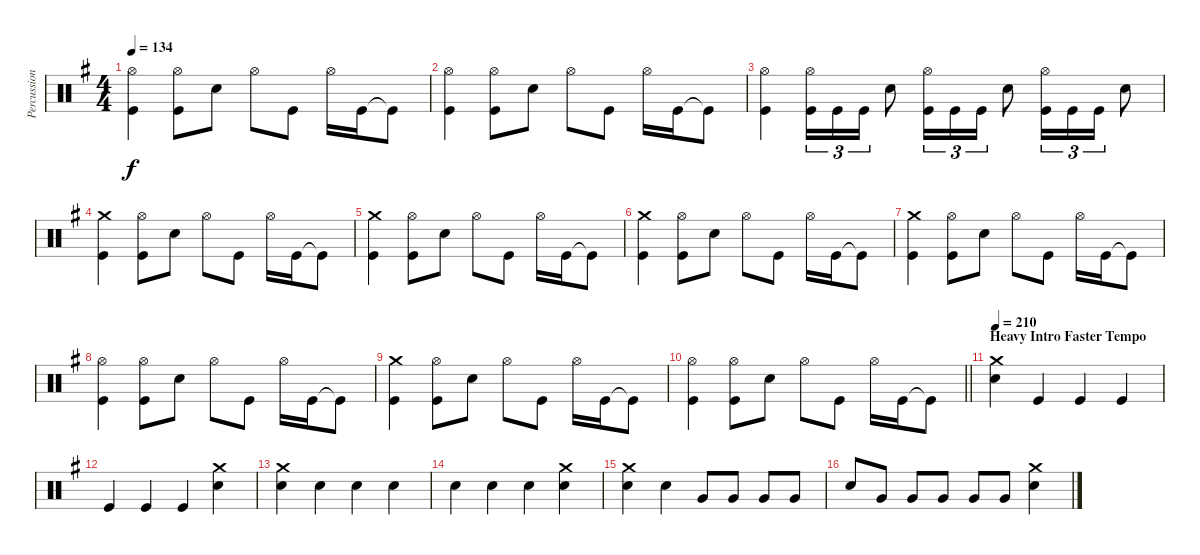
\track ("Percussion" "Percussion") {instrument percussion}
\staff {score}
\articulation defaults
\ts (4 4)
\tempo 134
\clef neutral
\ks g
("Hi-Hat (open)" "Kick (hit)").4{dy f} ("Hi-Hat (open)" "Kick (hit)").8 "Snare (hit) 2".8 "Hi-Hat (open)".8 "Kick (hit)".8 "Hi-Hat (open)".16 "Kick (hit)".16 "Kick (hit)"{t}.8 |
("Hi-Hat (open)" "Kick (hit)").4 ("Hi-Hat (open)" "Kick (hit)").8 "Snare (hit) 2".8 "Hi-Hat (open)".8 "Kick (hit)".8 "Hi-Hat (open)".16 "Kick (hit)".16 "Kick (hit)"{t}.8 |
("Hi-Hat (open)" "Kick (hit)").4 ("Hi-Hat (open)" "Kick (hit)").16{tu (3 2)} "Kick (hit)".16{tu (3 2)} "Kick (hit)".16{tu (3 2)} "Snare (hit) 2".8 ("Hi-Hat (open)" "Kick (hit)").16{tu (3 2)} "Kick (hit)".16{tu (3 2)} "Kick (hit)".16{tu (3 2)} "Snare (hit) 2".8 ("Hi-Hat (open)" "Kick (hit)").16{tu (3 2)} "Kick (hit)".16{tu (3 2)} "Kick (hit)".16{tu (3 2)} "Snare (hit) 2".8 |
("Crash medium (hit)" "Kick (hit)").4 ("Hi-Hat (open)" "Kick (hit)").8 "Snare (hit) 2".8 "Hi-Hat (open)".8 "Kick (hit)".8 "Hi-Hat (open)".16 "Kick (hit)".16 "Kick (hit)"{t}.8 |
("Crash medium (hit)" "Kick (hit)").4 ("Hi-Hat (open)" "Kick (hit)").8 "Snare (hit) 2".8 "Hi-Hat (open)".8 "Kick (hit)".8 "Hi-Hat (open)".16 "Kick (hit)".16 "Kick (hit)"{t}.8 |
("Crash medium (hit)" "Kick (hit)").4 ("Hi-Hat (open)" "Kick (hit)").8 "Snare (hit) 2".8 "Hi-Hat (open)".8 "Kick (hit)".8 "Hi-Hat (open)".16 "Kick (hit)".16 "Kick (hit)"{t}.8 |
("Crash medium (hit)" "Kick (hit)").4 ("Hi-Hat (open)" "Kick (hit)").8 "Snare (hit) 2".8 "Hi-Hat (open)".8 "Kick (hit)".8 "Hi-Hat (open)".16 "Kick (hit)".16 "Kick (hit)"{t}.8 |
("Hi-Hat (open)" "Kick (hit)").4 ("Hi-Hat (open)" "Kick (hit)").8 "Snare (hit) 2".8 "Hi-Hat (open)".8 "Kick (hit)".8 "Hi-Hat (open)".16 "Kick (hit)".16 "Kick (hit)"{t}.8 |
("Crash medium (hit)" "Kick (hit)").4 ("Hi-Hat (open)" "Kick (hit)").8 "Snare (hit) 2".8 "Hi-Hat (open)".8 "Kick (hit)".8 "Hi-Hat (open)".16 "Kick (hit)".16 "Kick (hit)"{t}.8 |
\barLineRight lightlight
("Hi-Hat (open)" "Kick (hit)").4 ("Hi-Hat (open)" "Kick (hit)").8 "Snare (hit) 2".8 "Hi-Hat (open)".8 "Kick (hit)".8 "Hi-Hat (open)".16 "Kick (hit)".16 "Kick (hit)"{t}.8 |
\section ("" "Heavy Intro Faster Tempo")
\tempo 210
("Crash medium (hit)" "Snare (hit) 2").4 "Kick (hit)".4 "Kick (hit)".4 "Kick (hit)".4 |
"Kick (hit)".4 "Kick (hit)".4 "Kick (hit)".4 ("Crash medium (hit)" "Snare (hit) 2").4 |
("Crash medium (hit)" "Snare (hit) 2").4 "Snare (hit) 2".4 "Snare (hit) 2".4 "Snare (hit) 2".4 |
"Snare (hit) 2".4 "Snare (hit) 2".4 "Snare (hit) 2".4 ("Crash medium (hit)" "Snare (hit) 2").4 |
("Crash medium (hit)" "Snare (hit) 2").4 "Snare (hit) 2".4 "Very Low Tom (hit)".8 "Very Low Tom (hit)".8 "Very Low Tom (hit)".8 "Very Low Tom (hit)".8 |
"Snare (hit) 2".8 "Very Low Tom (hit)".8 "Very Low Tom (hit)".8 "Very Low Tom (hit)".8 "Very Low Tom (hit)".8 "Very Low Tom (hit)".8 ("Crash medium (hit)" "Snare (hit) 2").4
